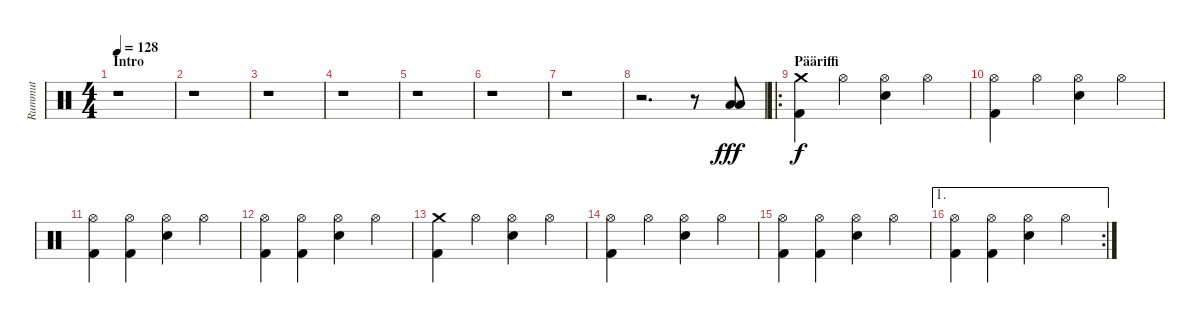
\track ("Rummut" "Rummut") {instrument percussion}
\staff {score}
\articulation defaults
\ts (4 4)
\section ("" "Intro")
\tempo 128
\clef neutral
\ks c
r.1{dy fff} |
r.1 |
r.1 |
r.1 |
r.1 |
r.1 |
r.1 |
r.2{d} r.8 ("Low Floor Tom (hit)" "Low Floor Tom (hit)").8 |
\ro
\section ("" "Pääriffi")
("Kick (hit) 2" "Crash medium (hit)").4{dy f} "Hi-Hat (open)".4 ("Hi-Hat (open)" "Snare (hit) 2").4 "Hi-Hat (open)".4 |
("Kick (hit) 2" "Hi-Hat (open)").4 "Hi-Hat (open)".4 ("Hi-Hat (open)" "Snare (hit) 2").4 "Hi-Hat (open)".4 |
("Kick (hit) 2" "Hi-Hat (open)").4 ("Kick (hit) 2" "Hi-Hat (open)").4 ("Hi-Hat (open)" "Snare (hit) 2").4 "Hi-Hat (open)".4 |
("Kick (hit) 2" "Hi-Hat (open)").4 ("Kick (hit) 2" "Hi-Hat (open)").4 ("Hi-Hat (open)" "Snare (hit) 2").4 "Hi-Hat (open)".4 |
("Kick (hit) 2" "Crash medium (hit)").4 "Hi-Hat (open)".4 ("Hi-Hat (open)" "Snare (hit) 2").4 "Hi-Hat (open)".4 |
("Kick (hit) 2" "Hi-Hat (open)").4 "Hi-Hat (open)".4 ("Hi-Hat (open)" "Snare (hit) 2").4 "Hi-Hat (open)".4 |
("Kick (hit) 2" "Hi-Hat (open)").4 ("Kick (hit) 2" "Hi-Hat (open)").4 ("Hi-Hat (open)" "Snare (hit) 2").4 "Hi-Hat (open)".4 |
\ae 1
\rc 2
("Kick (hit) 2" "Hi-Hat (open)").4 ("Kick (hit) 2" "Hi-Hat (open)").4 ("Hi-Hat (open)" "Snare (hit) 2").4 "Hi-Hat (open)".4
